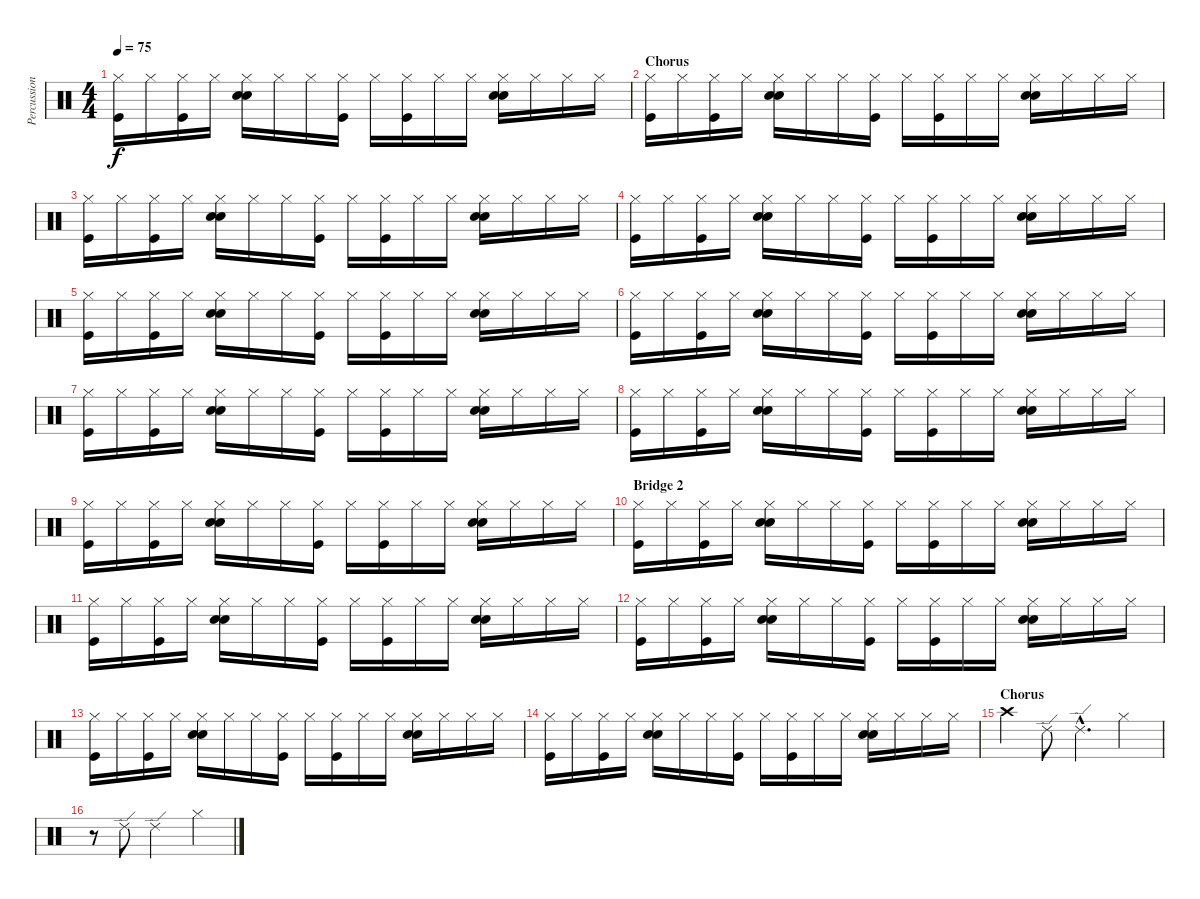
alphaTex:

\track ("Percussion" "Percussion") {instrument percussion}
\staff {score}
\articulation defaults
\ts (4 4)
\tempo 75
\clef neutral
\ks c
("Kick (hit)" "Hi-Hat (closed)").16{dy f} "Hi-Hat (closed)".16 ("Kick (hit)" "Hi-Hat (closed)").16 "Hi-Hat (closed)".16 ("Snare (hit) 2" "Electric Snare (hit)" "Hi-Hat (closed)").16 "Hi-Hat (closed)".16 "Hi-Hat (closed)".16 ("Kick (hit)" "Hi-Hat (closed)").16 "Hi-Hat (closed)".16 ("Kick (hit)" "Hi-Hat (closed)").16 "Hi-Hat (closed)".16 "Hi-Hat (closed)".16 ("Snare (hit) 2" "Electric Snare (hit)" "Hi-Hat (closed)").16 "Hi-Hat (closed)".16 "Hi-Hat (closed)".16 "Hi-Hat (closed)".16 |
\section ("" "Chorus")
("Kick (hit)" "Hi-Hat (closed)").16 "Hi-Hat (closed)".16 ("Kick (hit)" "Hi-Hat (closed)").16 "Hi-Hat (closed)".16 ("Snare (hit) 2" "Electric Snare (hit)" "Hi-Hat (closed)").16 "Hi-Hat (closed)".16 "Hi-Hat (closed)".16 ("Kick (hit)" "Hi-Hat (closed)").16 "Hi-Hat (closed)".16 ("Kick (hit)" "Hi-Hat (closed)").16 "Hi-Hat (closed)".16 "Hi-Hat (closed)".16 ("Snare (hit) 2" "Electric Snare (hit)" "Hi-Hat (closed)").16 "Hi-Hat (closed)".16 "Hi-Hat (closed)".16 "Hi-Hat (closed)".16 |
("Kick (hit)" "Hi-Hat (closed)").16 "Hi-Hat (closed)".16 ("Kick (hit)" "Hi-Hat (closed)").16 "Hi-Hat (closed)".16 ("Snare (hit) 2" "Electric Snare (hit)" "Hi-Hat (closed)").16 "Hi-Hat (closed)".16 "Hi-Hat (closed)".16 ("Kick (hit)" "Hi-Hat (closed)").16 "Hi-Hat (closed)".16 ("Kick (hit)" "Hi-Hat (closed)").16 "Hi-Hat (closed)".16 "Hi-Hat (closed)".16 ("Snare (hit) 2" "Electric Snare (hit)" "Hi-Hat (closed)").16 "Hi-Hat (closed)".16 "Hi-Hat (closed)".16 "Hi-Hat (closed)".16 |
("Kick (hit)" "Hi-Hat (closed)").16 "Hi-Hat (closed)".16 ("Kick (hit)" "Hi-Hat (closed)").16 "Hi-Hat (closed)".16 ("Snare (hit) 2" "Electric Snare (hit)" "Hi-Hat (closed)").16 "Hi-Hat (closed)".16 "Hi-Hat (closed)".16 ("Kick (hit)" "Hi-Hat (closed)").16 "Hi-Hat (closed)".16 ("Kick (hit)" "Hi-Hat (closed)").16 "Hi-Hat (closed)".16 "Hi-Hat (closed)".16 ("Snare (hit) 2" "Electric Snare (hit)" "Hi-Hat (closed)").16 "Hi-Hat (closed)".16 "Hi-Hat (closed)".16 "Hi-Hat (closed)".16 |
("Kick (hit)" "Hi-Hat (closed)").16 "Hi-Hat (closed)".16 ("Kick (hit)" "Hi-Hat (closed)").16 "Hi-Hat (closed)".16 ("Snare (hit) 2" "Electric Snare (hit)" "Hi-Hat (closed)").16 "Hi-Hat (closed)".16 "Hi-Hat (closed)".16 ("Kick (hit)" "Hi-Hat (closed)").16 "Hi-Hat (closed)".16 ("Kick (hit)" "Hi-Hat (closed)").16 "Hi-Hat (closed)".16 "Hi-Hat (closed)".16 ("Snare (hit) 2" "Electric Snare (hit)" "Hi-Hat (closed)").16 "Hi-Hat (closed)".16 "Hi-Hat (closed)".16 "Hi-Hat (closed)".16 |
("Kick (hit)" "Hi-Hat (closed)").16 "Hi-Hat (closed)".16 ("Kick (hit)" "Hi-Hat (closed)").16 "Hi-Hat (closed)".16 ("Snare (hit) 2" "Electric Snare (hit)" "Hi-Hat (closed)").16 "Hi-Hat (closed)".16 "Hi-Hat (closed)".16 ("Kick (hit)" "Hi-Hat (closed)").16 "Hi-Hat (closed)".16 ("Kick (hit)" "Hi-Hat (closed)").16 "Hi-Hat (closed)".16 "Hi-Hat (closed)".16 ("Snare (hit) 2" "Electric Snare (hit)" "Hi-Hat (closed)").16 "Hi-Hat (closed)".16 "Hi-Hat (closed)".16 "Hi-Hat (closed)".16 |
("Kick (hit)" "Hi-Hat (closed)").16 "Hi-Hat (closed)".16 ("Kick (hit)" "Hi-Hat (closed)").16 "Hi-Hat (closed)".16 ("Snare (hit) 2" "Electric Snare (hit)" "Hi-Hat (closed)").16 "Hi-Hat (closed)".16 "Hi-Hat (closed)".16 ("Kick (hit)" "Hi-Hat (closed)").16 "Hi-Hat (closed)".16 ("Kick (hit)" "Hi-Hat (closed)").16 "Hi-Hat (closed)".16 "Hi-Hat (closed)".16 ("Snare (hit) 2" "Electric Snare (hit)" "Hi-Hat (closed)").16 "Hi-Hat (closed)".16 "Hi-Hat (closed)".16 "Hi-Hat (closed)".16 |
("Kick (hit)" "Hi-Hat (closed)").16 "Hi-Hat (closed)".16 ("Kick (hit)" "Hi-Hat (closed)").16 "Hi-Hat (closed)".16 ("Snare (hit) 2" "Electric Snare (hit)" "Hi-Hat (closed)").16 "Hi-Hat (closed)".16 "Hi-Hat (closed)".16 ("Kick (hit)" "Hi-Hat (closed)").16 "Hi-Hat (closed)".16 ("Kick (hit)" "Hi-Hat (closed)").16 "Hi-Hat (closed)".16 "Hi-Hat (closed)".16 ("Snare (hit) 2" "Electric Snare (hit)" "Hi-Hat (closed)").16 "Hi-Hat (closed)".16 "Hi-Hat (closed)".16 "Hi-Hat (closed)".16 |
("Kick (hit)" "Hi-Hat (closed)").16 "Hi-Hat (closed)".16 ("Kick (hit)" "Hi-Hat (closed)").16 "Hi-Hat (closed)".16 ("Snare (hit) 2" "Electric Snare (hit)" "Hi-Hat (closed)").16 "Hi-Hat (closed)".16 "Hi-Hat (closed)".16 ("Kick (hit)" "Hi-Hat (closed)").16 "Hi-Hat (closed)".16 ("Kick (hit)" "Hi-Hat (closed)").16 "Hi-Hat (closed)".16 "Hi-Hat (closed)".16 ("Snare (hit) 2" "Electric Snare (hit)" "Hi-Hat (closed)").16 "Hi-Hat (closed)".16 "Hi-Hat (closed)".16 "Hi-Hat (closed)".16 |
\section ("" "Bridge 2")
("Kick (hit)" "Hi-Hat (closed)").16 "Hi-Hat (closed)".16 ("Kick (hit)" "Hi-Hat (closed)").16 "Hi-Hat (closed)".16 ("Snare (hit) 2" "Electric Snare (hit)" "Hi-Hat (closed)").16 "Hi-Hat (closed)".16 "Hi-Hat (closed)".16 ("Kick (hit)" "Hi-Hat (closed)").16 "Hi-Hat (closed)".16 ("Kick (hit)" "Hi-Hat (closed)").16 "Hi-Hat (closed)".16 "Hi-Hat (closed)".16 ("Snare (hit) 2" "Electric Snare (hit)" "Hi-Hat (closed)").16 "Hi-Hat (closed)".16 "Hi-Hat (closed)".16 "Hi-Hat (closed)".16 |
("Kick (hit)" "Hi-Hat (closed)").16 "Hi-Hat (closed)".16 ("Kick (hit)" "Hi-Hat (closed)").16 "Hi-Hat (closed)".16 ("Snare (hit) 2" "Electric Snare (hit)" "Hi-Hat (closed)").16 "Hi-Hat (closed)".16 "Hi-Hat (closed)".16 ("Kick (hit)" "Hi-Hat (closed)").16 "Hi-Hat (closed)".16 ("Kick (hit)" "Hi-Hat (closed)").16 "Hi-Hat (closed)".16 "Hi-Hat (closed)".16 ("Snare (hit) 2" "Electric Snare (hit)" "Hi-Hat (closed)").16 "Hi-Hat (closed)".16 "Hi-Hat (closed)".16 "Hi-Hat (closed)".16 |
("Kick (hit)" "Hi-Hat (closed)").16 "Hi-Hat (closed)".16 ("Kick (hit)" "Hi-Hat (closed)").16 "Hi-Hat (closed)".16 ("Snare (hit) 2" "Electric Snare (hit)" "Hi-Hat (closed)").16 "Hi-Hat (closed)".16 "Hi-Hat (closed)".16 ("Kick (hit)" "Hi-Hat (closed)").16 "Hi-Hat (closed)".16 ("Kick (hit)" "Hi-Hat (closed)").16 "Hi-Hat (closed)".16 "Hi-Hat (closed)".16 ("Snare (hit) 2" "Electric Snare (hit)" "Hi-Hat (closed)").16 "Hi-Hat (closed)".16 "Hi-Hat (closed)".16 "Hi-Hat (closed)".16 |
("Kick (hit)" "Hi-Hat (closed)").16 "Hi-Hat (closed)".16 ("Kick (hit)" "Hi-Hat (closed)").16 "Hi-Hat (closed)".16 ("Snare (hit) 2" "Electric Snare (hit)" "Hi-Hat (closed)").16 "Hi-Hat (closed)".16 "Hi-Hat (closed)".16 ("Kick (hit)" "Hi-Hat (closed)").16 "Hi-Hat (closed)".16 ("Kick (hit)" "Hi-Hat (closed)").16 "Hi-Hat (closed)".16 "Hi-Hat (closed)".16 ("Snare (hit) 2" "Electric Snare (hit)" "Hi-Hat (closed)").16 "Hi-Hat (closed)".16 "Hi-Hat (closed)".16 "Hi-Hat (closed)".16 |
("Kick (hit)" "Hi-Hat (closed)").16 "Hi-Hat (closed)".16 ("Kick (hit)" "Hi-Hat (closed)").16 "Hi-Hat (closed)".16 ("Snare (hit) 2" "Electric Snare (hit)" "Hi-Hat (closed)").16 "Hi-Hat (closed)".16 "Hi-Hat (closed)".16 ("Kick (hit)" "Hi-Hat (closed)").16 "Hi-Hat (closed)".16 ("Kick (hit)" "Hi-Hat (closed)").16 "Hi-Hat (closed)".16 "Hi-Hat (closed)".16 ("Snare (hit) 2" "Electric Snare (hit)" "Hi-Hat (closed)").16 "Hi-Hat (closed)".16 "Hi-Hat (closed)".16 "Hi-Hat (closed)".16 |
\section ("" "Chorus")
"Crash high (hit)".4 "Ride (edge) 2".8 "Ride (edge) 2"{hac}.4{d} "Hi-Hat (closed)".4 |
r.8 "Ride (edge) 2".8 "Ride (edge) 2".2 "Hi-Hat (closed)".4
